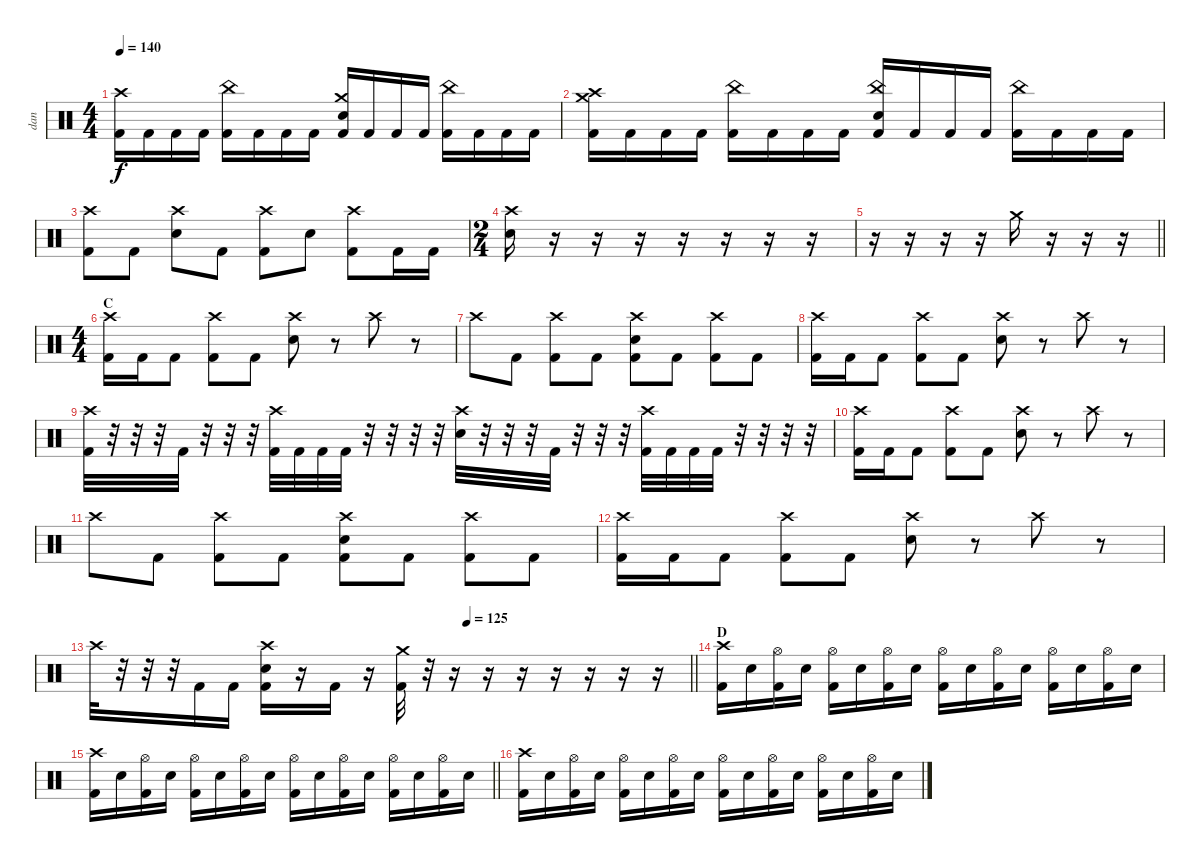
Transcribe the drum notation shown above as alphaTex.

\track ("dan" "dan") {instrument percussion}
\staff {score}
\articulation defaults
\ts (4 4)
\tempo 140
\clef neutral
\ks c
("Crash high (hit)" "Kick (hit) 2").16{dy f} "Kick (hit) 2".16 "Kick (hit) 2".16 "Kick (hit) 2".16 ("China (hit)" "Kick (hit) 2").16 "Kick (hit) 2".16 "Kick (hit) 2".16 "Kick (hit) 2".16 ("Crash medium (hit)" "Electric Snare (hit)" "Kick (hit) 2").16 "Kick (hit) 2".16 "Kick (hit) 2".16 "Kick (hit) 2".16 ("China (hit)" "Kick (hit) 2").16 "Kick (hit) 2".16 "Kick (hit) 2".16 "Kick (hit) 2".16 |
("Crash high (hit)" "Crash medium (hit)" "Kick (hit) 2").16 "Kick (hit) 2".16 "Kick (hit) 2".16 "Kick (hit) 2".16 ("China (hit)" "Kick (hit) 2").16 "Kick (hit) 2".16 "Kick (hit) 2".16 "Kick (hit) 2".16 ("China (hit)" "Electric Snare (hit)" "Kick (hit) 2").16 "Kick (hit) 2".16 "Kick (hit) 2".16 "Kick (hit) 2".16 ("China (hit)" "Kick (hit) 2").16 "Kick (hit) 2".16 "Kick (hit) 2".16 "Kick (hit) 2".16 |
("Crash high (hit)" "Kick (hit) 2").8 "Kick (hit) 2".8 ("Crash high (hit)" "Electric Snare (hit)").8 "Kick (hit) 2".8 ("Crash high (hit)" "Kick (hit) 2").8 "Electric Snare (hit)".8 ("Crash high (hit)" "Kick (hit) 2").8 "Kick (hit) 2".16 "Kick (hit) 2".16 |
\ts (2 4)
("Crash high (hit)" "Electric Snare (hit)").16 r.16 r.16 r.16 r.16 r.16 r.16 r.16 |
\barLineRight lightlight
r.16 r.16 r.16 r.16 "Crash medium (hit)".16 r.16 r.16 r.16 |
\ts (4 4)
\section ("" "C")
("Crash high (hit)" "Kick (hit) 2").16 "Kick (hit) 2".16 "Kick (hit) 2".8 ("Crash high (hit)" "Kick (hit) 2").8 "Kick (hit) 2".8 ("Crash high (hit)" "Electric Snare (hit)").8 r.8 "Crash high (hit)".8 r.8 |
"Crash high (hit)".8 "Kick (hit) 2".8 ("Crash high (hit)" "Kick (hit) 2").8 "Kick (hit) 2".8 ("Crash high (hit)" "Electric Snare (hit)" "Kick (hit) 2").8 "Kick (hit) 2".8 ("Crash high (hit)" "Kick (hit) 2").8 "Kick (hit) 2".8 |
("Crash high (hit)" "Kick (hit) 2").16 "Kick (hit) 2".16 "Kick (hit) 2".8 ("Crash high (hit)" "Kick (hit) 2").8 "Kick (hit) 2".8 ("Crash high (hit)" "Electric Snare (hit)").8 r.8 "Crash high (hit)".8 r.8 |
("Crash high (hit)" "Kick (hit) 2").32 r.32 r.32 r.32 "Kick (hit) 2".32 r.32 r.32 r.32 ("Crash high (hit)" "Kick (hit) 2").32 "Kick (hit) 2".32 "Kick (hit) 2".32 "Kick (hit) 2".32 r.32 r.32 r.32 r.32 ("Crash high (hit)" "Electric Snare (hit)").32 r.32 r.32 r.32 "Kick (hit) 2".32 r.32 r.32 r.32 ("Crash high (hit)" "Kick (hit) 2").32 "Kick (hit) 2".32 "Kick (hit) 2".32 "Kick (hit) 2".32 r.32 r.32 r.32 r.32 |
("Crash high (hit)" "Kick (hit) 2").16 "Kick (hit) 2".16 "Kick (hit) 2".8 ("Crash high (hit)" "Kick (hit) 2").8 "Kick (hit) 2".8 ("Crash high (hit)" "Electric Snare (hit)").8 r.8 "Crash high (hit)".8 r.8 |
"Crash high (hit)".8 "Kick (hit) 2".8 ("Crash high (hit)" "Kick (hit) 2").8 "Kick (hit) 2".8 ("Crash high (hit)" "Electric Snare (hit)" "Kick (hit) 2").8 "Kick (hit) 2".8 ("Crash high (hit)" "Kick (hit) 2").8 "Kick (hit) 2".8 |
("Crash high (hit)" "Kick (hit) 2").16 "Kick (hit) 2".16 "Kick (hit) 2".8 ("Crash high (hit)" "Kick (hit) 2").8 "Kick (hit) 2".8 ("Crash high (hit)" "Electric Snare (hit)").8 r.8 "Crash high (hit)".8 r.8 |
\tempo (125 0.625)
\barLineRight lightlight "Crash high (hit)".32
r.32 r.32 r.32 "Kick (hit) 2".16 "Kick (hit) 2".16 ("Crash high (hit)" "Electric Snare (hit)" "Kick (hit) 2").16 r.16 "Kick (hit) 2".16 r.16 ("Crash medium (hit)" "Kick (hit) 2").32 r.32 r.16 r.16 r.16 r.16 r.16 r.16 r.16 |
\section ("" "D")
("Crash high (hit)" "Kick (hit) 2").16 "Electric Snare (hit)".16 ("Hi-Hat (open)" "Kick (hit) 2").16 "Electric Snare (hit)".16 ("Hi-Hat (open)" "Kick (hit) 2").16 "Electric Snare (hit)".16 ("Hi-Hat (open)" "Kick (hit) 2").16 "Electric Snare (hit)".16 ("Hi-Hat (open)" "Kick (hit) 2").16 "Electric Snare (hit)".16 ("Hi-Hat (open)" "Kick (hit) 2").16 "Electric Snare (hit)".16 ("Hi-Hat (open)" "Kick (hit) 2").16 "Electric Snare (hit)".16 ("Hi-Hat (open)" "Kick (hit) 2").16 "Electric Snare (hit)".16 |
\barLineRight lightlight
("Crash high (hit)" "Kick (hit) 2").16 "Electric Snare (hit)".16 ("Hi-Hat (open)" "Kick (hit) 2").16 "Electric Snare (hit)".16 ("Hi-Hat (open)" "Kick (hit) 2").16 "Electric Snare (hit)".16 ("Hi-Hat (open)" "Kick (hit) 2").16 "Electric Snare (hit)".16 ("Hi-Hat (open)" "Kick (hit) 2").16 "Electric Snare (hit)".16 ("Hi-Hat (open)" "Kick (hit) 2").16 "Electric Snare (hit)".16 ("Hi-Hat (open)" "Kick (hit) 2").16 "Electric Snare (hit)".16 ("Hi-Hat (open)" "Kick (hit) 2").16 "Electric Snare (hit)".16 |
("Crash high (hit)" "Kick (hit) 2").16 "Electric Snare (hit)".16 ("Hi-Hat (open)" "Kick (hit) 2").16 "Electric Snare (hit)".16 ("Hi-Hat (open)" "Kick (hit) 2").16 "Electric Snare (hit)".16 ("Hi-Hat (open)" "Kick (hit) 2").16 "Electric Snare (hit)".16 ("Hi-Hat (open)" "Kick (hit) 2").16 "Electric Snare (hit)".16 ("Hi-Hat (open)" "Kick (hit) 2").16 "Electric Snare (hit)".16 ("Hi-Hat (open)" "Kick (hit) 2").16 "Electric Snare (hit)".16 ("Hi-Hat (open)" "Kick (hit) 2").16 "Electric Snare (hit)".16
